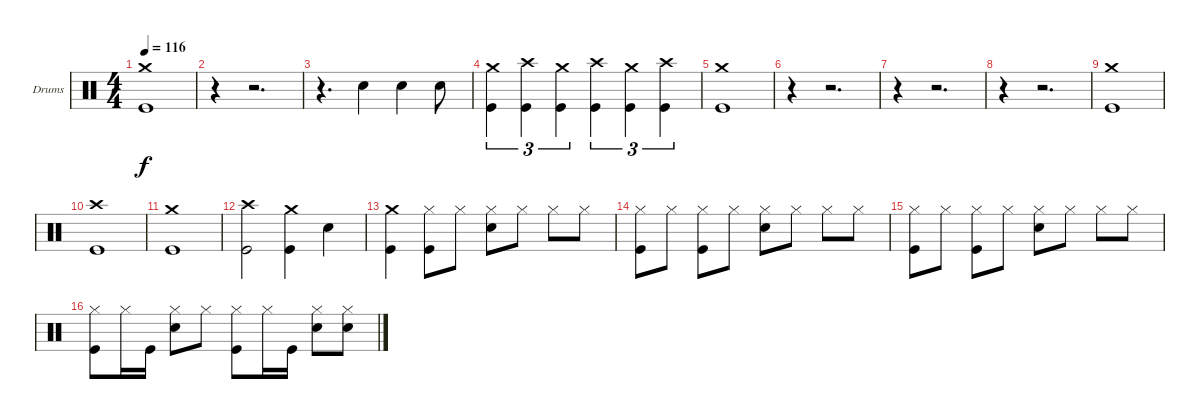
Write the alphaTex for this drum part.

\bracketExtendMode groupsimilarinstruments
\firstSystemTrackNameOrientation horizontal
\otherSystemsTrackNameOrientation horizontal
\track ("Drumkit" "Drums") {instrument percussion}
\staff {score}
\articulation defaults
\ts (4 4)
\tempo 116
\clef neutral
\ks c
("Kick (hit)" "Crash medium (hit)").1{dy f} |
r.4 r.2{d} |
r.4{d} "Snare (hit) 2".4 "Snare (hit) 2".4 "Snare (hit) 2".8 |
("Kick (hit)" "Crash medium (hit)").4{tu (3 2)} ("Kick (hit)" "Crash high (hit)").4{tu (3 2)} ("Kick (hit)" "Crash medium (hit)").4{tu (3 2)} ("Kick (hit)" "Crash high (hit)").4{tu (3 2)} ("Kick (hit)" "Crash medium (hit)").4{tu (3 2)} ("Kick (hit)" "Crash high (hit)").4{tu (3 2)} |
("Kick (hit)" "Crash medium (hit)").1 |
r.4 r.2{d} |
r.4 r.2{d} |
r.4 r.2{d} |
("Kick (hit)" "Crash medium (hit)").1 |
("Kick (hit)" "Crash high (hit)").1 |
("Kick (hit)" "Crash medium (hit)").1 |
("Kick (hit)" "Crash high (hit)").2 ("Kick (hit)" "Crash medium (hit)").4 "Snare (hit) 2".4 |
("Kick (hit)" "Crash medium (hit)").4 ("Kick (hit)" "Hi-Hat (closed)").8 "Hi-Hat (closed)".8 ("Snare (hit) 2" "Hi-Hat (closed)").8 "Hi-Hat (closed)".8 "Hi-Hat (closed)".8 "Hi-Hat (closed)".8 |
("Kick (hit)" "Hi-Hat (closed)").8 "Hi-Hat (closed)".8 ("Kick (hit)" "Hi-Hat (closed)").8 "Hi-Hat (closed)".8 ("Snare (hit) 2" "Hi-Hat (closed)").8 "Hi-Hat (closed)".8 "Hi-Hat (closed)".8 "Hi-Hat (closed)".8 |
("Kick (hit)" "Hi-Hat (closed)").8 "Hi-Hat (closed)".8 ("Kick (hit)" "Hi-Hat (closed)").8 "Hi-Hat (closed)".8 ("Snare (hit) 2" "Hi-Hat (closed)").8 "Hi-Hat (closed)".8 "Hi-Hat (closed)".8 "Hi-Hat (closed)".8 |
("Kick (hit)" "Hi-Hat (closed)").8 "Hi-Hat (closed)".16 "Kick (hit)".16 ("Snare (hit) 2" "Hi-Hat (closed)").8 "Hi-Hat (closed)".8 ("Kick (hit)" "Hi-Hat (closed)").8 "Hi-Hat (closed)".16 "Kick (hit)".16 ("Snare (hit) 2" "Hi-Hat (closed)").8 ("Snare (hit) 2" "Hi-Hat (closed)").8
